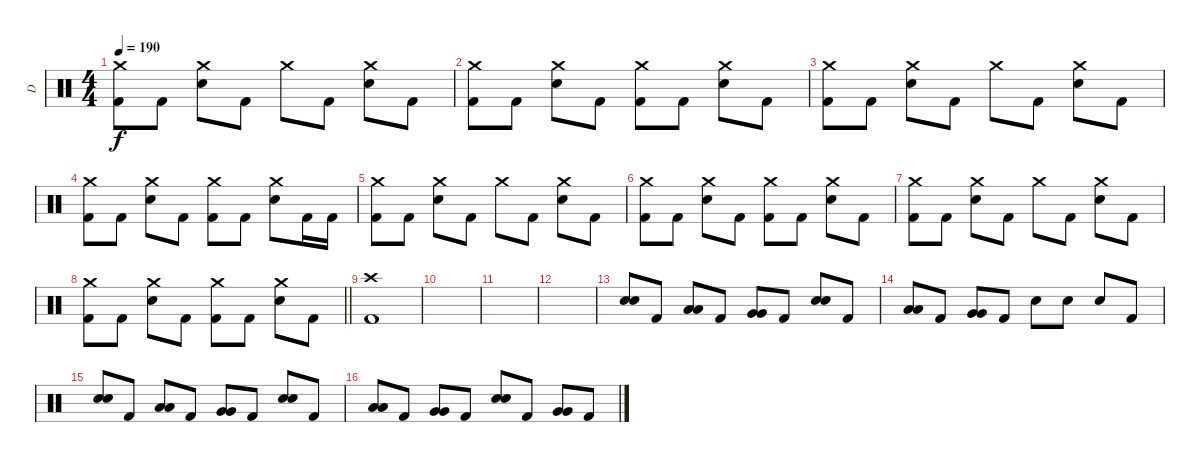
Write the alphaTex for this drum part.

\track ("D" "D") {instrument percussion}
\staff {score}
\articulation defaults
\ts (4 4)
\tempo 190
\clef neutral
\ks c
("Crash medium (hit)" "Kick (hit) 2").8{dy f} "Kick (hit) 2".8 ("Crash medium (hit)" "Electric Snare (hit)").8 "Kick (hit) 2".8 "Crash medium (hit)".8 "Kick (hit) 2".8 ("Crash medium (hit)" "Electric Snare (hit)").8 "Kick (hit) 2".8 |
("Crash medium (hit)" "Kick (hit) 2").8 "Kick (hit) 2".8 ("Crash medium (hit)" "Electric Snare (hit)").8 "Kick (hit) 2".8 ("Crash medium (hit)" "Kick (hit) 2").8 "Kick (hit) 2".8 ("Crash medium (hit)" "Electric Snare (hit)").8 "Kick (hit) 2".8 |
("Crash medium (hit)" "Kick (hit) 2").8 "Kick (hit) 2".8 ("Crash medium (hit)" "Electric Snare (hit)").8 "Kick (hit) 2".8 "Crash medium (hit)".8 "Kick (hit) 2".8 ("Crash medium (hit)" "Electric Snare (hit)").8 "Kick (hit) 2".8 |
("Crash medium (hit)" "Kick (hit) 2").8 "Kick (hit) 2".8 ("Crash medium (hit)" "Electric Snare (hit)").8 "Kick (hit) 2".8 ("Crash medium (hit)" "Kick (hit) 2").8 "Kick (hit) 2".8 ("Crash medium (hit)" "Electric Snare (hit)").8 "Kick (hit) 2".16 "Kick (hit) 2".16 |
("Crash medium (hit)" "Kick (hit) 2").8 "Kick (hit) 2".8 ("Crash medium (hit)" "Electric Snare (hit)").8 "Kick (hit) 2".8 "Crash medium (hit)".8 "Kick (hit) 2".8 ("Crash medium (hit)" "Electric Snare (hit)").8 "Kick (hit) 2".8 |
("Crash medium (hit)" "Kick (hit) 2").8 "Kick (hit) 2".8 ("Crash medium (hit)" "Electric Snare (hit)").8 "Kick (hit) 2".8 ("Crash medium (hit)" "Kick (hit) 2").8 "Kick (hit) 2".8 ("Crash medium (hit)" "Electric Snare (hit)").8 "Kick (hit) 2".8 |
("Crash medium (hit)" "Kick (hit) 2").8 "Kick (hit) 2".8 ("Crash medium (hit)" "Electric Snare (hit)").8 "Kick (hit) 2".8 "Crash medium (hit)".8 "Kick (hit) 2".8 ("Crash medium (hit)" "Electric Snare (hit)").8 "Kick (hit) 2".8 |
\barLineRight lightlight
("Crash medium (hit)" "Kick (hit) 2").8 "Kick (hit) 2".8 ("Crash medium (hit)" "Electric Snare (hit)").8 "Kick (hit) 2".8 ("Crash medium (hit)" "Kick (hit) 2").8 "Kick (hit) 2".8 ("Crash medium (hit)" "Electric Snare (hit)").8 "Kick (hit) 2".8 |
\section ("" "")
("Crash high (hit)" "Kick (hit) 2").1 |
|
|
|
("Electric Snare (hit)" "Electric Snare (hit)").8{bd 120} "Kick (hit) 2".8 ("Low Tom (hit)" "Low Tom (hit)").8{bd 120} "Kick (hit) 2".8 ("Very Low Tom (hit)" "Very Low Tom (hit)").8{bd 120} "Kick (hit) 2".8 ("Electric Snare (hit)" "Electric Snare (hit)").8{bd 120} "Kick (hit) 2".8 |
("Low Tom (hit)" "Low Tom (hit)").8{bd 120} "Kick (hit) 2".8 ("Very Low Tom (hit)" "Very Low Tom (hit)").8{bd 120} "Kick (hit) 2".8 "Electric Snare (hit)".8 "Electric Snare (hit)".8 "Electric Snare (hit)".8 "Kick (hit) 2".8 |
("Electric Snare (hit)" "Electric Snare (hit)").8{bd 120} "Kick (hit) 2".8 ("Low Tom (hit)" "Low Tom (hit)").8{bd 120} "Kick (hit) 2".8 ("Very Low Tom (hit)" "Very Low Tom (hit)").8{bd 120} "Kick (hit) 2".8 ("Electric Snare (hit)" "Electric Snare (hit)").8{bd 120} "Kick (hit) 2".8 |
("Low Tom (hit)" "Low Tom (hit)").8{bd 120} "Kick (hit) 2".8 ("Very Low Tom (hit)" "Very Low Tom (hit)").8{bd 120} "Kick (hit) 2".8 ("Electric Snare (hit)" "Electric Snare (hit)").8{bd 120} "Kick (hit) 2".8 ("Very Low Tom (hit)" "Very Low Tom (hit)").8{bd 120} "Kick (hit) 2".8
